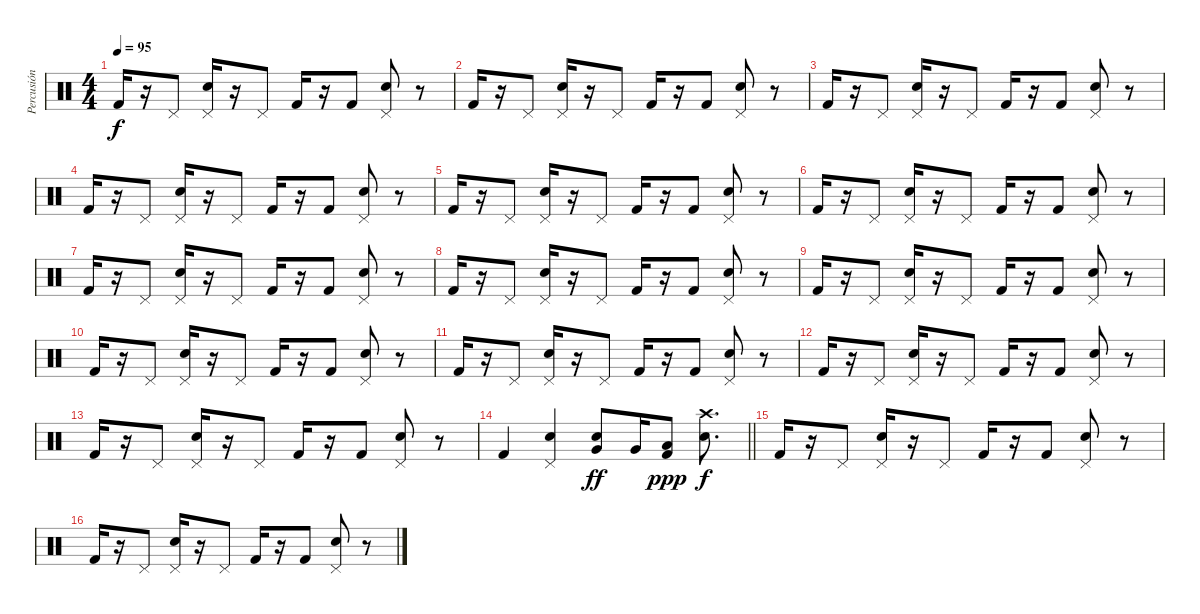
\track ("Percusión" "Percusión") {instrument percussion}
\staff {score}
\articulation defaults
\ts (4 4)
\tempo 95
\clef neutral
\ks c "Kick (hit) 2".16{dy f}
r.16 "Pedal Hi-Hat (hit)".8 ("Snare (hit) 2" "Pedal Hi-Hat (hit)").16 r.16 "Pedal Hi-Hat (hit)".8 "Kick (hit) 2".16 r.16 "Kick (hit) 2".8 ("Snare (hit) 2" "Pedal Hi-Hat (hit)").8 r.8 |
"Kick (hit) 2".16 r.16 "Pedal Hi-Hat (hit)".8 ("Snare (hit) 2" "Pedal Hi-Hat (hit)").16 r.16 "Pedal Hi-Hat (hit)".8 "Kick (hit) 2".16 r.16 "Kick (hit) 2".8 ("Snare (hit) 2" "Pedal Hi-Hat (hit)").8 r.8 |
"Kick (hit) 2".16 r.16 "Pedal Hi-Hat (hit)".8 ("Snare (hit) 2" "Pedal Hi-Hat (hit)").16 r.16 "Pedal Hi-Hat (hit)".8 "Kick (hit) 2".16 r.16 "Kick (hit) 2".8 ("Snare (hit) 2" "Pedal Hi-Hat (hit)").8 r.8 |
"Kick (hit) 2".16 r.16 "Pedal Hi-Hat (hit)".8 ("Snare (hit) 2" "Pedal Hi-Hat (hit)").16 r.16 "Pedal Hi-Hat (hit)".8 "Kick (hit) 2".16 r.16 "Kick (hit) 2".8 ("Snare (hit) 2" "Pedal Hi-Hat (hit)").8 r.8 |
"Kick (hit) 2".16 r.16 "Pedal Hi-Hat (hit)".8 ("Snare (hit) 2" "Pedal Hi-Hat (hit)").16 r.16 "Pedal Hi-Hat (hit)".8 "Kick (hit) 2".16 r.16 "Kick (hit) 2".8 ("Snare (hit) 2" "Pedal Hi-Hat (hit)").8 r.8 |
"Kick (hit) 2".16 r.16 "Pedal Hi-Hat (hit)".8 ("Snare (hit) 2" "Pedal Hi-Hat (hit)").16 r.16 "Pedal Hi-Hat (hit)".8 "Kick (hit) 2".16 r.16 "Kick (hit) 2".8 ("Snare (hit) 2" "Pedal Hi-Hat (hit)").8 r.8 |
"Kick (hit) 2".16 r.16 "Pedal Hi-Hat (hit)".8 ("Snare (hit) 2" "Pedal Hi-Hat (hit)").16 r.16 "Pedal Hi-Hat (hit)".8 "Kick (hit) 2".16 r.16 "Kick (hit) 2".8 ("Snare (hit) 2" "Pedal Hi-Hat (hit)").8 r.8 |
"Kick (hit) 2".16 r.16 "Pedal Hi-Hat (hit)".8 ("Snare (hit) 2" "Pedal Hi-Hat (hit)").16 r.16 "Pedal Hi-Hat (hit)".8 "Kick (hit) 2".16 r.16 "Kick (hit) 2".8 ("Snare (hit) 2" "Pedal Hi-Hat (hit)").8 r.8 |
"Kick (hit) 2".16 r.16 "Pedal Hi-Hat (hit)".8 ("Snare (hit) 2" "Pedal Hi-Hat (hit)").16 r.16 "Pedal Hi-Hat (hit)".8 "Kick (hit) 2".16 r.16 "Kick (hit) 2".8 ("Snare (hit) 2" "Pedal Hi-Hat (hit)").8 r.8 |
"Kick (hit) 2".16 r.16 "Pedal Hi-Hat (hit)".8 ("Snare (hit) 2" "Pedal Hi-Hat (hit)").16 r.16 "Pedal Hi-Hat (hit)".8 "Kick (hit) 2".16 r.16 "Kick (hit) 2".8 ("Snare (hit) 2" "Pedal Hi-Hat (hit)").8 r.8 |
"Kick (hit) 2".16 r.16 "Pedal Hi-Hat (hit)".8 ("Snare (hit) 2" "Pedal Hi-Hat (hit)").16 r.16 "Pedal Hi-Hat (hit)".8 "Kick (hit) 2".16 r.16 "Kick (hit) 2".8 ("Snare (hit) 2" "Pedal Hi-Hat (hit)").8 r.8 |
"Kick (hit) 2".16 r.16 "Pedal Hi-Hat (hit)".8 ("Snare (hit) 2" "Pedal Hi-Hat (hit)").16 r.16 "Pedal Hi-Hat (hit)".8 "Kick (hit) 2".16 r.16 "Kick (hit) 2".8 ("Snare (hit) 2" "Pedal Hi-Hat (hit)").8 r.8 |
"Kick (hit) 2".16 r.16 "Pedal Hi-Hat (hit)".8 ("Snare (hit) 2" "Pedal Hi-Hat (hit)").16 r.16 "Pedal Hi-Hat (hit)".8 "Kick (hit) 2".16 r.16 "Kick (hit) 2".8 ("Snare (hit) 2" "Pedal Hi-Hat (hit)").8 r.8 |
\barLineRight lightlight "Kick (hit) 2".4
("Snare (hit) 2" "Pedal Hi-Hat (hit)").4 ("Very Low Tom (hit)" "Snare (hit) 2").8{dy ff} "Very Low Tom (hit)".16 ("Low Tom (hit)" "Kick (hit) 2").8{dy ppp} ("Crash high (hit)" "Snare (hit) 2").8{d dy f} |
\section ("" "")
"Kick (hit) 2".16 r.16 "Pedal Hi-Hat (hit)".8 ("Snare (hit) 2" "Pedal Hi-Hat (hit)").16 r.16 "Pedal Hi-Hat (hit)".8 "Kick (hit) 2".16 r.16 "Kick (hit) 2".8 ("Snare (hit) 2" "Pedal Hi-Hat (hit)").8 r.8 |
"Kick (hit) 2".16 r.16 "Pedal Hi-Hat (hit)".8 ("Snare (hit) 2" "Pedal Hi-Hat (hit)").16 r.16 "Pedal Hi-Hat (hit)".8 "Kick (hit) 2".16 r.16 "Kick (hit) 2".8 ("Snare (hit) 2" "Pedal Hi-Hat (hit)").8 r.8
